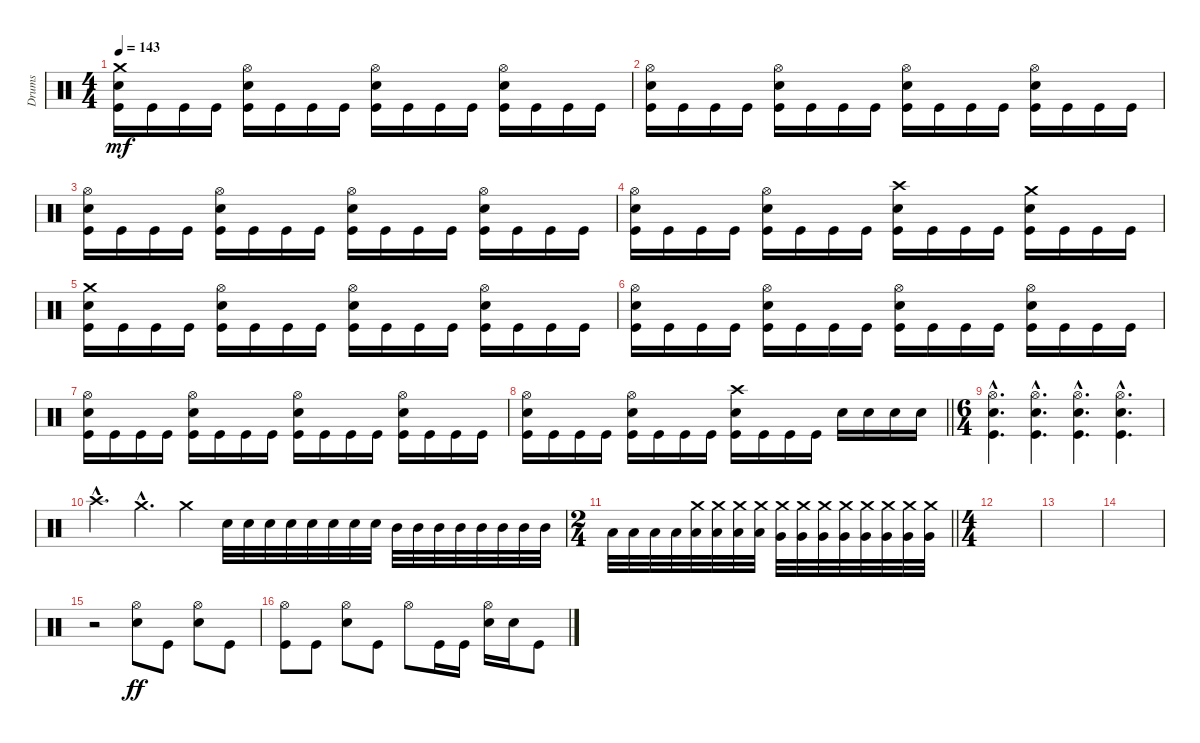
\track ("Drums" "Drums") {instrument percussion}
\staff {score}
\articulation defaults
\ts (4 4)
\section ("" "")
\tempo 143
\clef neutral
\ks c
("Crash medium (hit)" "Electric Snare (hit)" "Kick (hit)").16{dy mf} "Kick (hit)".16 "Kick (hit)".16 "Kick (hit)".16 ("Hi-Hat (open)" "Electric Snare (hit)" "Kick (hit)").16 "Kick (hit)".16 "Kick (hit)".16 "Kick (hit)".16 ("Hi-Hat (open)" "Electric Snare (hit)" "Kick (hit)").16 "Kick (hit)".16 "Kick (hit)".16 "Kick (hit)".16 ("Hi-Hat (open)" "Electric Snare (hit)" "Kick (hit)").16 "Kick (hit)".16 "Kick (hit)".16 "Kick (hit)".16 |
("Hi-Hat (open)" "Electric Snare (hit)" "Kick (hit)").16 "Kick (hit)".16 "Kick (hit)".16 "Kick (hit)".16 ("Hi-Hat (open)" "Electric Snare (hit)" "Kick (hit)").16 "Kick (hit)".16 "Kick (hit)".16 "Kick (hit)".16 ("Hi-Hat (open)" "Electric Snare (hit)" "Kick (hit)").16 "Kick (hit)".16 "Kick (hit)".16 "Kick (hit)".16 ("Hi-Hat (open)" "Electric Snare (hit)" "Kick (hit)").16 "Kick (hit)".16 "Kick (hit)".16 "Kick (hit)".16 |
("Hi-Hat (open)" "Electric Snare (hit)" "Kick (hit)").16 "Kick (hit)".16 "Kick (hit)".16 "Kick (hit)".16 ("Hi-Hat (open)" "Electric Snare (hit)" "Kick (hit)").16 "Kick (hit)".16 "Kick (hit)".16 "Kick (hit)".16 ("Hi-Hat (open)" "Electric Snare (hit)" "Kick (hit)").16 "Kick (hit)".16 "Kick (hit)".16 "Kick (hit)".16 ("Hi-Hat (open)" "Electric Snare (hit)" "Kick (hit)").16 "Kick (hit)".16 "Kick (hit)".16 "Kick (hit)".16 |
("Hi-Hat (open)" "Electric Snare (hit)" "Kick (hit)").16 "Kick (hit)".16 "Kick (hit)".16 "Kick (hit)".16 ("Hi-Hat (open)" "Electric Snare (hit)" "Kick (hit)").16 "Kick (hit)".16 "Kick (hit)".16 "Kick (hit)".16 ("Crash high (hit)" "Electric Snare (hit)" "Kick (hit)").16 "Kick (hit)".16 "Kick (hit)".16 "Kick (hit)".16 ("Crash medium (hit)" "Electric Snare (hit)" "Kick (hit)").16 "Kick (hit)".16 "Kick (hit)".16 "Kick (hit)".16 |
("Crash medium (hit)" "Electric Snare (hit)" "Kick (hit)").16 "Kick (hit)".16 "Kick (hit)".16 "Kick (hit)".16 ("Hi-Hat (open)" "Electric Snare (hit)" "Kick (hit)").16 "Kick (hit)".16 "Kick (hit)".16 "Kick (hit)".16 ("Hi-Hat (open)" "Electric Snare (hit)" "Kick (hit)").16 "Kick (hit)".16 "Kick (hit)".16 "Kick (hit)".16 ("Hi-Hat (open)" "Electric Snare (hit)" "Kick (hit)").16 "Kick (hit)".16 "Kick (hit)".16 "Kick (hit)".16 |
("Hi-Hat (open)" "Electric Snare (hit)" "Kick (hit)").16 "Kick (hit)".16 "Kick (hit)".16 "Kick (hit)".16 ("Hi-Hat (open)" "Electric Snare (hit)" "Kick (hit)").16 "Kick (hit)".16 "Kick (hit)".16 "Kick (hit)".16 ("Hi-Hat (open)" "Electric Snare (hit)" "Kick (hit)").16 "Kick (hit)".16 "Kick (hit)".16 "Kick (hit)".16 ("Hi-Hat (open)" "Electric Snare (hit)" "Kick (hit)").16 "Kick (hit)".16 "Kick (hit)".16 "Kick (hit)".16 |
("Hi-Hat (open)" "Electric Snare (hit)" "Kick (hit)").16 "Kick (hit)".16 "Kick (hit)".16 "Kick (hit)".16 ("Hi-Hat (open)" "Electric Snare (hit)" "Kick (hit)").16 "Kick (hit)".16 "Kick (hit)".16 "Kick (hit)".16 ("Hi-Hat (open)" "Electric Snare (hit)" "Kick (hit)").16 "Kick (hit)".16 "Kick (hit)".16 "Kick (hit)".16 ("Hi-Hat (open)" "Electric Snare (hit)" "Kick (hit)").16 "Kick (hit)".16 "Kick (hit)".16 "Kick (hit)".16 |
\barLineRight lightlight
("Hi-Hat (open)" "Electric Snare (hit)" "Kick (hit)").16 "Kick (hit)".16 "Kick (hit)".16 "Kick (hit)".16 ("Hi-Hat (open)" "Electric Snare (hit)" "Kick (hit)").16 "Kick (hit)".16 "Kick (hit)".16 "Kick (hit)".16 ("Crash high (hit)" "Electric Snare (hit)" "Kick (hit)").16 "Kick (hit)".16 "Kick (hit)".16 "Kick (hit)".16 "Electric Snare (hit)".16 "Electric Snare (hit)".16 "Electric Snare (hit)".16 "Electric Snare (hit)".16 |
\ts (6 4)
\section ("" "")
("Hi-Hat (open)"{hac} "Electric Snare (hit)"{hac} "Kick (hit)"{hac}).4{d} ("Hi-Hat (open)"{hac} "Electric Snare (hit)"{hac} "Kick (hit)"{hac}).4{d} ("Hi-Hat (open)"{hac} "Electric Snare (hit)"{hac} "Kick (hit)"{hac}).4{d} ("Hi-Hat (open)"{hac} "Electric Snare (hit)"{hac} "Kick (hit)"{hac}).4{d} |
"Crash high (hit)"{hac}.4{d} "Crash medium (hit)"{hac}.4{d} "Crash medium (hit)".4 "Electric Snare (hit)".32 "Electric Snare (hit)".32 "Electric Snare (hit)".32 "Electric Snare (hit)".32 "Electric Snare (hit)".32 "Electric Snare (hit)".32 "Electric Snare (hit)".32 "Electric Snare (hit)".32 "Mid Tom (hit)".32 "Mid Tom (hit)".32 "Mid Tom (hit)".32 "Mid Tom (hit)".32 "Mid Tom (hit)".32 "Mid Tom (hit)".32 "Mid Tom (hit)".32 "Mid Tom (hit)".32 |
\ts (2 4)
\barLineRight lightlight "Low Tom (hit)".32 "Low Tom (hit)".32 "Low Tom (hit)".32 "Low Tom (hit)".32
("Crash medium (hit)" "Low Tom (hit)").32 ("Crash medium (hit)" "Low Tom (hit)").32 ("Crash medium (hit)" "Low Tom (hit)").32 ("Crash medium (hit)" "Low Tom (hit)").32 ("Crash medium (hit)" "Very Low Tom (hit)").32 ("Crash medium (hit)" "Very Low Tom (hit)").32 ("Crash medium (hit)" "Very Low Tom (hit)").32 ("Crash medium (hit)" "Very Low Tom (hit)").32 ("Crash medium (hit)" "Very Low Tom (hit)").32 ("Crash medium (hit)" "Very Low Tom (hit)").32 ("Crash medium (hit)" "Very Low Tom (hit)").32 ("Crash medium (hit)" "Very Low Tom (hit)").32 |
\ts (4 4)
\section ("" "")
|
|
|
r.2 ("Hi-Hat (open)" "Electric Snare (hit)").8{dy ff} "Kick (hit)".8 ("Hi-Hat (open)" "Electric Snare (hit)").8 "Kick (hit)".8 |
("Hi-Hat (open)" "Kick (hit)").8 "Kick (hit)".8 ("Hi-Hat (open)" "Electric Snare (hit)").8 "Kick (hit)".8 "Hi-Hat (open)".8 "Kick (hit)".16 "Kick (hit)".16 ("Hi-Hat (open)" "Electric Snare (hit)").16 "Electric Snare (hit)".16 "Kick (hit)".8
